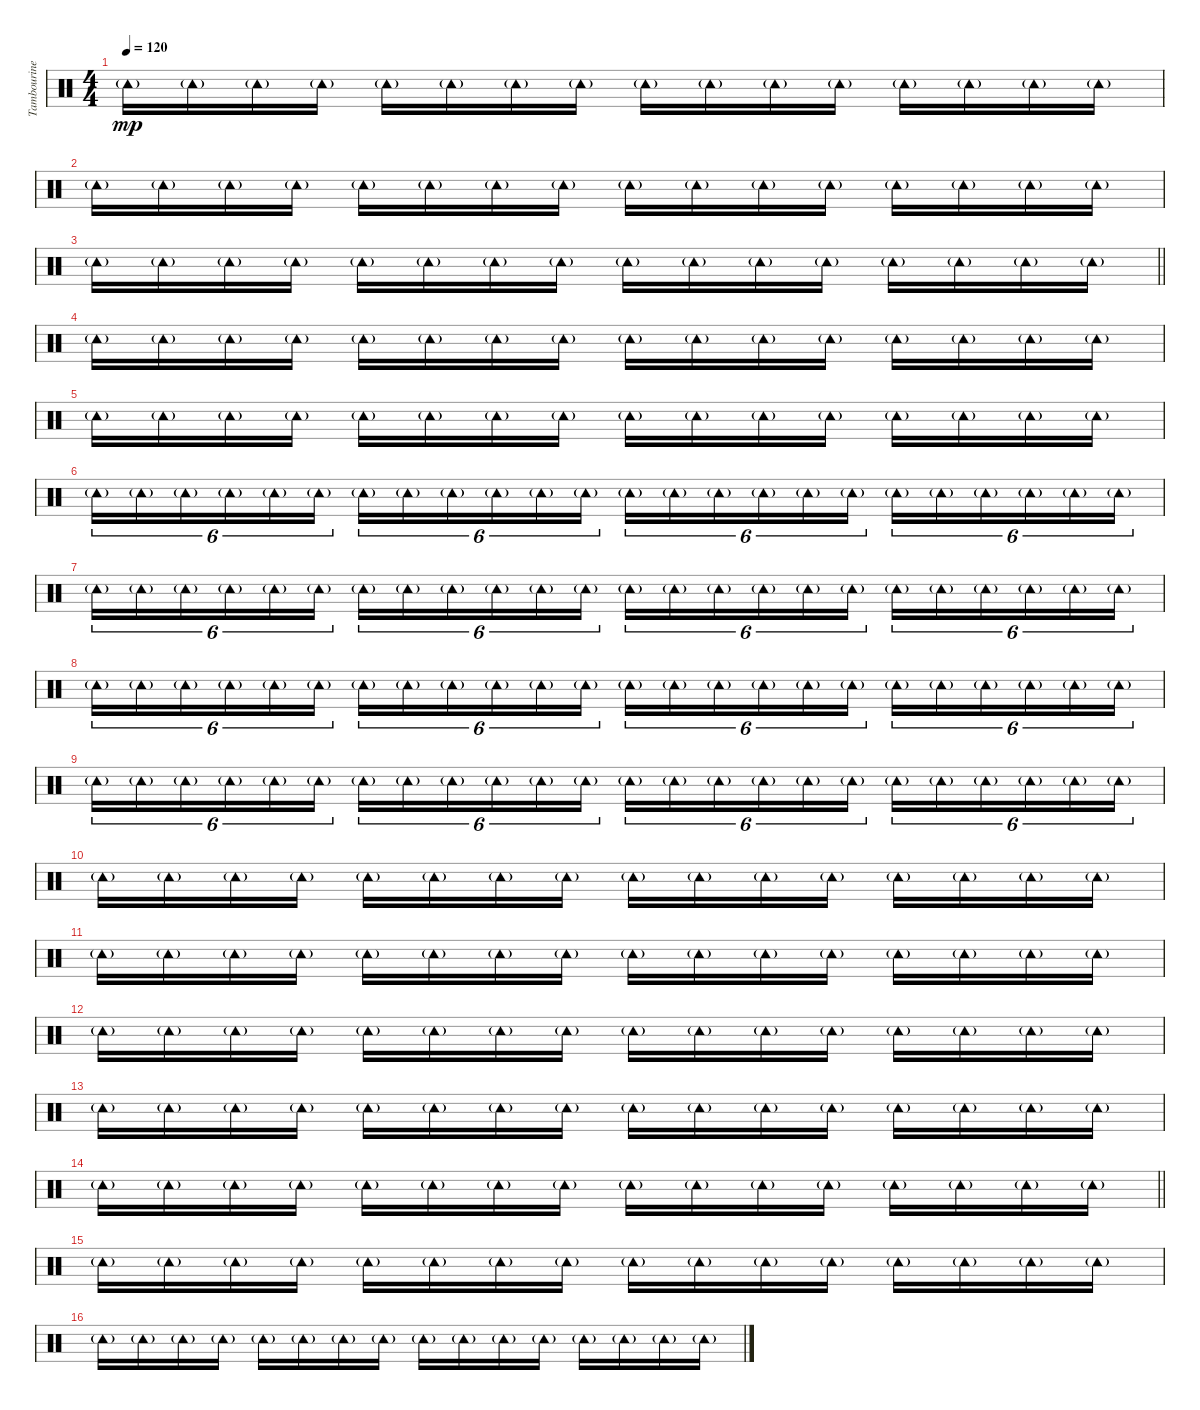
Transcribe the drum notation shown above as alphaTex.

\track ("Tambourine" "Tambourine") {instrument percussion}
\staff {score}
\articulation defaults
\ts (4 4)
\tempo 120
\clef neutral
\ks c "Tambourine (hit)"{g}.16{dy mp} "Tambourine (hit)"{g}.16 "Tambourine (hit)"{g}.16 "Tambourine (hit)"{g}.16 "Tambourine (hit)"{g}.16 "Tambourine (hit)"{g}.16 "Tambourine (hit)"{g}.16 "Tambourine (hit)"{g}.16 "Tambourine (hit)"{g}.16 "Tambourine (hit)"{g}.16 "Tambourine (hit)"{g}.16 "Tambourine (hit)"{g}.16 "Tambourine (hit)"{g}.16 "Tambourine (hit)"{g}.16 "Tambourine (hit)"{g}.16 "Tambourine (hit)"{g}.16
|
"Tambourine (hit)"{g}.16 "Tambourine (hit)"{g}.16 "Tambourine (hit)"{g}.16 "Tambourine (hit)"{g}.16 "Tambourine (hit)"{g}.16 "Tambourine (hit)"{g}.16 "Tambourine (hit)"{g}.16 "Tambourine (hit)"{g}.16 "Tambourine (hit)"{g}.16 "Tambourine (hit)"{g}.16 "Tambourine (hit)"{g}.16 "Tambourine (hit)"{g}.16 "Tambourine (hit)"{g}.16 "Tambourine (hit)"{g}.16 "Tambourine (hit)"{g}.16 "Tambourine (hit)"{g}.16 |
\barLineRight lightlight "Tambourine (hit)"{g}.16 "Tambourine (hit)"{g}.16 "Tambourine (hit)"{g}.16 "Tambourine (hit)"{g}.16 "Tambourine (hit)"{g}.16 "Tambourine (hit)"{g}.16 "Tambourine (hit)"{g}.16 "Tambourine (hit)"{g}.16 "Tambourine (hit)"{g}.16 "Tambourine (hit)"{g}.16 "Tambourine (hit)"{g}.16 "Tambourine (hit)"{g}.16 "Tambourine (hit)"{g}.16 "Tambourine (hit)"{g}.16 "Tambourine (hit)"{g}.16 "Tambourine (hit)"{g}.16
|
"Tambourine (hit)"{g}.16 "Tambourine (hit)"{g}.16 "Tambourine (hit)"{g}.16 "Tambourine (hit)"{g}.16 "Tambourine (hit)"{g}.16 "Tambourine (hit)"{g}.16 "Tambourine (hit)"{g}.16 "Tambourine (hit)"{g}.16 "Tambourine (hit)"{g}.16 "Tambourine (hit)"{g}.16 "Tambourine (hit)"{g}.16 "Tambourine (hit)"{g}.16 "Tambourine (hit)"{g}.16 "Tambourine (hit)"{g}.16 "Tambourine (hit)"{g}.16 "Tambourine (hit)"{g}.16 |
"Tambourine (hit)"{g}.16 "Tambourine (hit)"{g}.16 "Tambourine (hit)"{g}.16 "Tambourine (hit)"{g}.16 "Tambourine (hit)"{g}.16 "Tambourine (hit)"{g}.16 "Tambourine (hit)"{g}.16 "Tambourine (hit)"{g}.16 "Tambourine (hit)"{g}.16 "Tambourine (hit)"{g}.16 "Tambourine (hit)"{g}.16 "Tambourine (hit)"{g}.16 "Tambourine (hit)"{g}.16 "Tambourine (hit)"{g}.16 "Tambourine (hit)"{g}.16 "Tambourine (hit)"{g}.16 |
"Tambourine (hit)"{g}.16{tu (6 4)} "Tambourine (hit)"{g}.16{tu (6 4)} "Tambourine (hit)"{g}.16{tu (6 4)} "Tambourine (hit)"{g}.16{tu (6 4)} "Tambourine (hit)"{g}.16{tu (6 4)} "Tambourine (hit)"{g}.16{tu (6 4)} "Tambourine (hit)"{g}.16{tu (6 4)} "Tambourine (hit)"{g}.16{tu (6 4)} "Tambourine (hit)"{g}.16{tu (6 4)} "Tambourine (hit)"{g}.16{tu (6 4)} "Tambourine (hit)"{g}.16{tu (6 4)} "Tambourine (hit)"{g}.16{tu (6 4)} "Tambourine (hit)"{g}.16{tu (6 4)} "Tambourine (hit)"{g}.16{tu (6 4)} "Tambourine (hit)"{g}.16{tu (6 4)} "Tambourine (hit)"{g}.16{tu (6 4)} "Tambourine (hit)"{g}.16{tu (6 4)} "Tambourine (hit)"{g}.16{tu (6 4)} "Tambourine (hit)"{g}.16{tu (6 4)} "Tambourine (hit)"{g}.16{tu (6 4)} "Tambourine (hit)"{g}.16{tu (6 4)} "Tambourine (hit)"{g}.16{tu (6 4)} "Tambourine (hit)"{g}.16{tu (6 4)} "Tambourine (hit)"{g}.16{tu (6 4)} |
"Tambourine (hit)"{g}.16{tu (6 4)} "Tambourine (hit)"{g}.16{tu (6 4)} "Tambourine (hit)"{g}.16{tu (6 4)} "Tambourine (hit)"{g}.16{tu (6 4)} "Tambourine (hit)"{g}.16{tu (6 4)} "Tambourine (hit)"{g}.16{tu (6 4)} "Tambourine (hit)"{g}.16{tu (6 4)} "Tambourine (hit)"{g}.16{tu (6 4)} "Tambourine (hit)"{g}.16{tu (6 4)} "Tambourine (hit)"{g}.16{tu (6 4)} "Tambourine (hit)"{g}.16{tu (6 4)} "Tambourine (hit)"{g}.16{tu (6 4)} "Tambourine (hit)"{g}.16{tu (6 4)} "Tambourine (hit)"{g}.16{tu (6 4)} "Tambourine (hit)"{g}.16{tu (6 4)} "Tambourine (hit)"{g}.16{tu (6 4)} "Tambourine (hit)"{g}.16{tu (6 4)} "Tambourine (hit)"{g}.16{tu (6 4)} "Tambourine (hit)"{g}.16{tu (6 4)} "Tambourine (hit)"{g}.16{tu (6 4)} "Tambourine (hit)"{g}.16{tu (6 4)} "Tambourine (hit)"{g}.16{tu (6 4)} "Tambourine (hit)"{g}.16{tu (6 4)} "Tambourine (hit)"{g}.16{tu (6 4)} |
"Tambourine (hit)"{g}.16{tu (6 4)} "Tambourine (hit)"{g}.16{tu (6 4)} "Tambourine (hit)"{g}.16{tu (6 4)} "Tambourine (hit)"{g}.16{tu (6 4)} "Tambourine (hit)"{g}.16{tu (6 4)} "Tambourine (hit)"{g}.16{tu (6 4)} "Tambourine (hit)"{g}.16{tu (6 4)} "Tambourine (hit)"{g}.16{tu (6 4)} "Tambourine (hit)"{g}.16{tu (6 4)} "Tambourine (hit)"{g}.16{tu (6 4)} "Tambourine (hit)"{g}.16{tu (6 4)} "Tambourine (hit)"{g}.16{tu (6 4)} "Tambourine (hit)"{g}.16{tu (6 4)} "Tambourine (hit)"{g}.16{tu (6 4)} "Tambourine (hit)"{g}.16{tu (6 4)} "Tambourine (hit)"{g}.16{tu (6 4)} "Tambourine (hit)"{g}.16{tu (6 4)} "Tambourine (hit)"{g}.16{tu (6 4)} "Tambourine (hit)"{g}.16{tu (6 4)} "Tambourine (hit)"{g}.16{tu (6 4)} "Tambourine (hit)"{g}.16{tu (6 4)} "Tambourine (hit)"{g}.16{tu (6 4)} "Tambourine (hit)"{g}.16{tu (6 4)} "Tambourine (hit)"{g}.16{tu (6 4)} |
"Tambourine (hit)"{g}.16{tu (6 4)} "Tambourine (hit)"{g}.16{tu (6 4)} "Tambourine (hit)"{g}.16{tu (6 4)} "Tambourine (hit)"{g}.16{tu (6 4)} "Tambourine (hit)"{g}.16{tu (6 4)} "Tambourine (hit)"{g}.16{tu (6 4)} "Tambourine (hit)"{g}.16{tu (6 4)} "Tambourine (hit)"{g}.16{tu (6 4)} "Tambourine (hit)"{g}.16{tu (6 4)} "Tambourine (hit)"{g}.16{tu (6 4)} "Tambourine (hit)"{g}.16{tu (6 4)} "Tambourine (hit)"{g}.16{tu (6 4)} "Tambourine (hit)"{g}.16{tu (6 4)} "Tambourine (hit)"{g}.16{tu (6 4)} "Tambourine (hit)"{g}.16{tu (6 4)} "Tambourine (hit)"{g}.16{tu (6 4)} "Tambourine (hit)"{g}.16{tu (6 4)} "Tambourine (hit)"{g}.16{tu (6 4)} "Tambourine (hit)"{g}.16{tu (6 4)} "Tambourine (hit)"{g}.16{tu (6 4)} "Tambourine (hit)"{g}.16{tu (6 4)} "Tambourine (hit)"{g}.16{tu (6 4)} "Tambourine (hit)"{g}.16{tu (6 4)} "Tambourine (hit)"{g}.16{tu (6 4)} |
"Tambourine (hit)"{g}.16 "Tambourine (hit)"{g}.16 "Tambourine (hit)"{g}.16 "Tambourine (hit)"{g}.16 "Tambourine (hit)"{g}.16 "Tambourine (hit)"{g}.16 "Tambourine (hit)"{g}.16 "Tambourine (hit)"{g}.16 "Tambourine (hit)"{g}.16 "Tambourine (hit)"{g}.16 "Tambourine (hit)"{g}.16 "Tambourine (hit)"{g}.16 "Tambourine (hit)"{g}.16 "Tambourine (hit)"{g}.16 "Tambourine (hit)"{g}.16 "Tambourine (hit)"{g}.16 |
"Tambourine (hit)"{g}.16 "Tambourine (hit)"{g}.16 "Tambourine (hit)"{g}.16 "Tambourine (hit)"{g}.16 "Tambourine (hit)"{g}.16 "Tambourine (hit)"{g}.16 "Tambourine (hit)"{g}.16 "Tambourine (hit)"{g}.16 "Tambourine (hit)"{g}.16 "Tambourine (hit)"{g}.16 "Tambourine (hit)"{g}.16 "Tambourine (hit)"{g}.16 "Tambourine (hit)"{g}.16 "Tambourine (hit)"{g}.16 "Tambourine (hit)"{g}.16 "Tambourine (hit)"{g}.16 |
"Tambourine (hit)"{g}.16 "Tambourine (hit)"{g}.16 "Tambourine (hit)"{g}.16 "Tambourine (hit)"{g}.16 "Tambourine (hit)"{g}.16 "Tambourine (hit)"{g}.16 "Tambourine (hit)"{g}.16 "Tambourine (hit)"{g}.16 "Tambourine (hit)"{g}.16 "Tambourine (hit)"{g}.16 "Tambourine (hit)"{g}.16 "Tambourine (hit)"{g}.16 "Tambourine (hit)"{g}.16 "Tambourine (hit)"{g}.16 "Tambourine (hit)"{g}.16 "Tambourine (hit)"{g}.16 |
"Tambourine (hit)"{g}.16 "Tambourine (hit)"{g}.16 "Tambourine (hit)"{g}.16 "Tambourine (hit)"{g}.16 "Tambourine (hit)"{g}.16 "Tambourine (hit)"{g}.16 "Tambourine (hit)"{g}.16 "Tambourine (hit)"{g}.16 "Tambourine (hit)"{g}.16 "Tambourine (hit)"{g}.16 "Tambourine (hit)"{g}.16 "Tambourine (hit)"{g}.16 "Tambourine (hit)"{g}.16 "Tambourine (hit)"{g}.16 "Tambourine (hit)"{g}.16 "Tambourine (hit)"{g}.16 |
\barLineRight lightlight "Tambourine (hit)"{g}.16 "Tambourine (hit)"{g}.16 "Tambourine (hit)"{g}.16 "Tambourine (hit)"{g}.16 "Tambourine (hit)"{g}.16 "Tambourine (hit)"{g}.16 "Tambourine (hit)"{g}.16 "Tambourine (hit)"{g}.16 "Tambourine (hit)"{g}.16 "Tambourine (hit)"{g}.16 "Tambourine (hit)"{g}.16 "Tambourine (hit)"{g}.16 "Tambourine (hit)"{g}.16 "Tambourine (hit)"{g}.16 "Tambourine (hit)"{g}.16 "Tambourine (hit)"{g}.16
|
"Tambourine (hit)"{g}.16 "Tambourine (hit)"{g}.16 "Tambourine (hit)"{g}.16 "Tambourine (hit)"{g}.16 "Tambourine (hit)"{g}.16 "Tambourine (hit)"{g}.16 "Tambourine (hit)"{g}.16 "Tambourine (hit)"{g}.16 "Tambourine (hit)"{g}.16 "Tambourine (hit)"{g}.16 "Tambourine (hit)"{g}.16 "Tambourine (hit)"{g}.16 "Tambourine (hit)"{g}.16 "Tambourine (hit)"{g}.16 "Tambourine (hit)"{g}.16 "Tambourine (hit)"{g}.16 |
"Tambourine (hit)"{g}.16 "Tambourine (hit)"{g}.16 "Tambourine (hit)"{g}.16 "Tambourine (hit)"{g}.16 "Tambourine (hit)"{g}.16 "Tambourine (hit)"{g}.16 "Tambourine (hit)"{g}.16 "Tambourine (hit)"{g}.16 "Tambourine (hit)"{g}.16 "Tambourine (hit)"{g}.16 "Tambourine (hit)"{g}.16 "Tambourine (hit)"{g}.16 "Tambourine (hit)"{g}.16 "Tambourine (hit)"{g}.16 "Tambourine (hit)"{g}.16 "Tambourine (hit)"{g}.16
